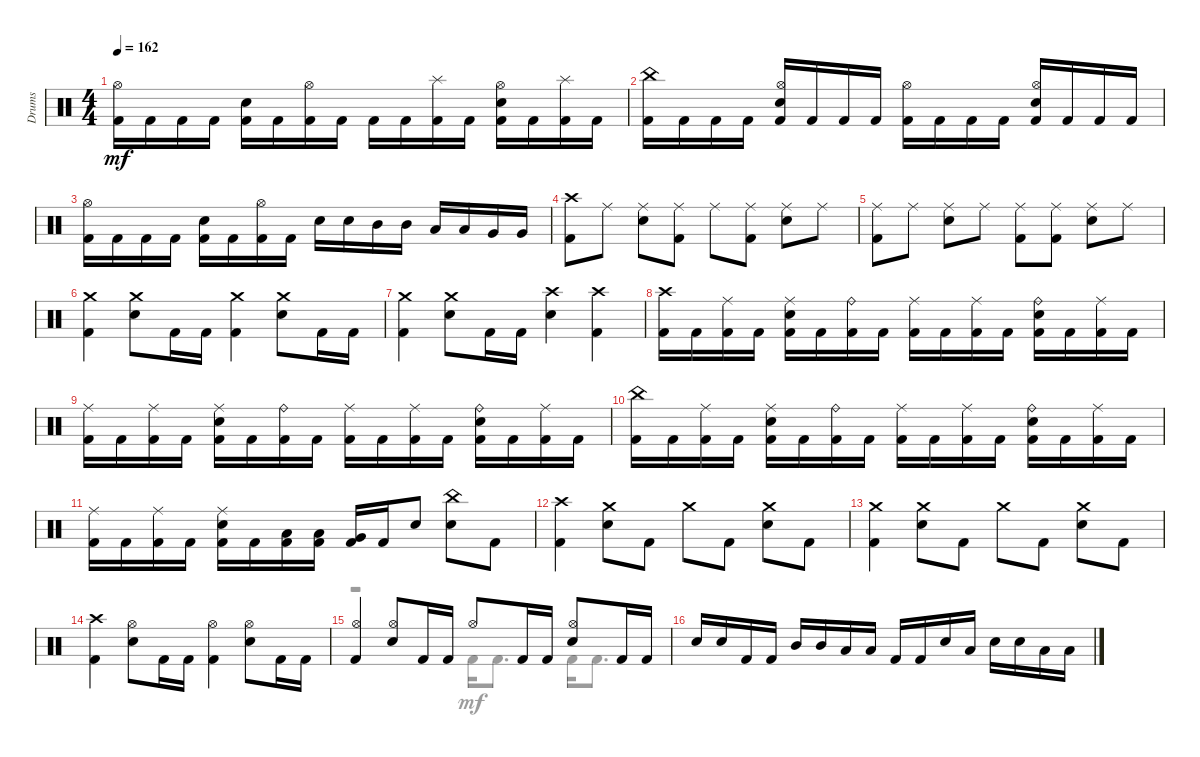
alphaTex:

\track ("Drums" "Drums") {instrument percussion}
\staff {score}
\articulation defaults
\voice
\ts (4 4)
\tempo 162
\clef neutral
\ks aminor
("Kick (hit) 2" "Hi-Hat (open)").16{dy mf} "Kick (hit) 2".16 "Kick (hit) 2".16 "Kick (hit) 2".16 ("Kick (hit) 2" "Snare (hit) 2").16 "Kick (hit) 2".16 ("Kick (hit) 2" "Hi-Hat (open)").16 "Kick (hit) 2".16 "Kick (hit) 2".16 "Kick (hit) 2".16 ("Splash (hit)" "Kick (hit) 2").16 "Kick (hit) 2".16 ("Kick (hit) 2" "Hi-Hat (open)" "Snare (hit) 2").16 "Kick (hit) 2".16 ("Splash (hit)" "Kick (hit) 2").16 "Kick (hit) 2".16 |
("China (hit)" "Kick (hit) 2").16 "Kick (hit) 2".16 "Kick (hit) 2".16 "Kick (hit) 2".16 ("Kick (hit) 2" "Hi-Hat (open)" "Snare (hit) 2").16 "Kick (hit) 2".16 "Kick (hit) 2".16 "Kick (hit) 2".16 ("Hi-Hat (open)" "Kick (hit) 2").16 "Kick (hit) 2".16 "Kick (hit) 2".16 "Kick (hit) 2".16 ("Hi-Hat (open)" "Kick (hit) 2" "Snare (hit) 2").16 "Kick (hit) 2".16 "Kick (hit) 2".16 "Kick (hit) 2".16 |
("Hi-Hat (open)" "Kick (hit) 2").16 "Kick (hit) 2".16 "Kick (hit) 2".16 "Kick (hit) 2".16 ("Snare (hit) 2" "Kick (hit) 2").16 "Kick (hit) 2".16 ("Hi-Hat (open)" "Kick (hit) 2").16 "Kick (hit) 2".16 "Snare (hit) 2".16 "Snare (hit) 2".16 "Mid Tom (hit)".16 "Mid Tom (hit)".16 "Low Tom (hit)".16 "Low Tom (hit)".16 "Very Low Tom (hit)".16 "Very Low Tom (hit)".16 |
("Crash high (hit)" "Kick (hit) 2").8 "Ride (middle)".8 ("Ride (middle)" "Snare (hit) 2").8 ("Ride (middle)" "Kick (hit) 2").8 "Ride (middle)".8 ("Kick (hit) 2" "Ride (middle)").8 ("Ride (middle)" "Snare (hit) 2").8 "Ride (middle)".8 |
("Kick (hit) 2" "Ride (middle)").8 "Ride (middle)".8 ("Snare (hit) 2" "Ride (middle)").8 "Ride (middle)".8 ("Ride (middle)" "Kick (hit) 2").8 ("Kick (hit) 2" "Ride (middle)").8 ("Snare (hit) 2" "Ride (middle)").8 "Ride (middle)".8 |
("Kick (hit) 2" "Crash medium (hit)").4 ("Snare (hit) 2" "Crash medium (hit)").8 "Kick (hit) 2".16 "Kick (hit) 2".16 ("Crash medium (hit)" "Kick (hit) 2").4 ("Crash medium (hit)" "Snare (hit) 2").8 "Kick (hit) 2".16 "Kick (hit) 2".16 |
("Kick (hit) 2" "Crash medium (hit)").4 ("Crash medium (hit)" "Snare (hit) 2").8 "Kick (hit) 2".16 "Kick (hit) 2".16 ("Crash high (hit)" "Snare (hit) 2").4 ("Crash high (hit)" "Kick (hit) 2").4 |
("Crash high (hit)" "Kick (hit) 2").16 "Kick (hit) 2".16 ("Ride (middle)" "Kick (hit) 2").16 "Kick (hit) 2".16 ("Ride (middle)" "Kick (hit) 2" "Snare (hit) 2").16 "Kick (hit) 2".16 ("Ride (bell)" "Kick (hit) 2").16 "Kick (hit) 2".16 ("Ride (middle)" "Kick (hit) 2").16 "Kick (hit) 2".16 ("Ride (middle)" "Kick (hit) 2").16 "Kick (hit) 2".16 ("Snare (hit) 2" "Kick (hit) 2" "Ride (bell)").16 "Kick (hit) 2".16 ("Ride (middle)" "Kick (hit) 2").16 "Kick (hit) 2".16 |
("Ride (middle)" "Kick (hit) 2").16 "Kick (hit) 2".16 ("Kick (hit) 2" "Ride (middle)").16 "Kick (hit) 2".16 ("Snare (hit) 2" "Kick (hit) 2" "Ride (middle)").16 "Kick (hit) 2".16 ("Kick (hit) 2" "Ride (bell)").16 "Kick (hit) 2".16 ("Ride (middle)" "Kick (hit) 2").16 "Kick (hit) 2".16 ("Ride (middle)" "Kick (hit) 2").16 "Kick (hit) 2".16 ("Ride (bell)" "Kick (hit) 2" "Snare (hit) 2").16 "Kick (hit) 2".16 ("Kick (hit) 2" "Ride (middle)").16 "Kick (hit) 2".16 |
("China (hit)" "Kick (hit) 2").16 "Kick (hit) 2".16 ("Kick (hit) 2" "Ride (middle)").16 "Kick (hit) 2".16 ("Kick (hit) 2" "Ride (middle)" "Snare (hit) 2").16 "Kick (hit) 2".16 ("Ride (bell)" "Kick (hit) 2").16 "Kick (hit) 2".16 ("Ride (middle)" "Kick (hit) 2").16 "Kick (hit) 2".16 ("Kick (hit) 2" "Ride (middle)").16 "Kick (hit) 2".16 ("Kick (hit) 2" "Snare (hit) 2" "Ride (bell)").16 "Kick (hit) 2".16 ("Kick (hit) 2" "Ride (middle)").16 "Kick (hit) 2".16 |
("Ride (middle)" "Kick (hit) 2").16 "Kick (hit) 2".16 ("Kick (hit) 2" "Ride (middle)").16 "Kick (hit) 2".16 ("Snare (hit) 2" "Ride (middle)" "Kick (hit) 2").16 "Kick (hit) 2".16 ("Kick (hit) 2" "Low Tom (hit)").16 ("Low Tom (hit)" "Kick (hit) 2").16 ("Very Low Tom (hit)" "Kick (hit) 2").16 "Kick (hit) 2".16 "Snare (hit) 2".8 ("China (hit)" "Snare (hit) 2").8 "Kick (hit) 2".8 |
("Kick (hit) 2" "Crash high (hit)").4 ("Crash medium (hit)" "Snare (hit) 2").8 "Kick (hit) 2".8 "Crash medium (hit)".8 "Kick (hit) 2".8 ("Snare (hit) 2" "Crash medium (hit)").8 "Kick (hit) 2".8 |
("Crash medium (hit)" "Kick (hit) 2").4 ("Snare (hit) 2" "Crash medium (hit)").8 "Kick (hit) 2".8 "Crash medium (hit)".8 "Kick (hit) 2".8 ("Crash medium (hit)" "Snare (hit) 2").8 "Kick (hit) 2".8 |
("Crash high (hit)" "Kick (hit) 2").4 ("Snare (hit) 2" "Hi-Hat (open)").8 "Kick (hit) 2".16 "Kick (hit) 2".16 ("Kick (hit) 2" "Hi-Hat (open)").4 ("Snare (hit) 2" "Hi-Hat (open)").8 "Kick (hit) 2".16 "Kick (hit) 2".16 |
("Kick (hit) 2" "Hi-Hat (open)").4 ("Snare (hit) 2" "Hi-Hat (open)").8 "Kick (hit) 2".16 "Kick (hit) 2".16 "Hi-Hat (open)".8 "Kick (hit) 2".16 "Kick (hit) 2".16 ("Snare (hit) 2" "Hi-Hat (open)").8 "Kick (hit) 2".16 "Kick (hit) 2".16 |
"Snare (hit) 2".16 "Snare (hit) 2".16 "Kick (hit) 2".16 "Kick (hit) 2".16 "Mid Tom (hit)".16 "Mid Tom (hit)".16 "Low Tom (hit)".16 "Low Tom (hit)".16 "Kick (hit) 2".16 "Kick (hit) 2".16 "Snare (hit) 2".16 "Low Tom (hit)".16 "Snare (hit) 2".16 "Snare (hit) 2".16 "Low Floor Tom (hit)".16 "Low Floor Tom (hit)".16
\voice
\clef neutral
\ottava regular
\simile none
\ks aminor
|
|
|
|
|
|
|
|
|
|
|
|
|
|
r.2 "Kick (hit) 2".16 "Kick (hit) 2".8{d} "Kick (hit) 2".16 "Kick (hit) 2".8{d} |
